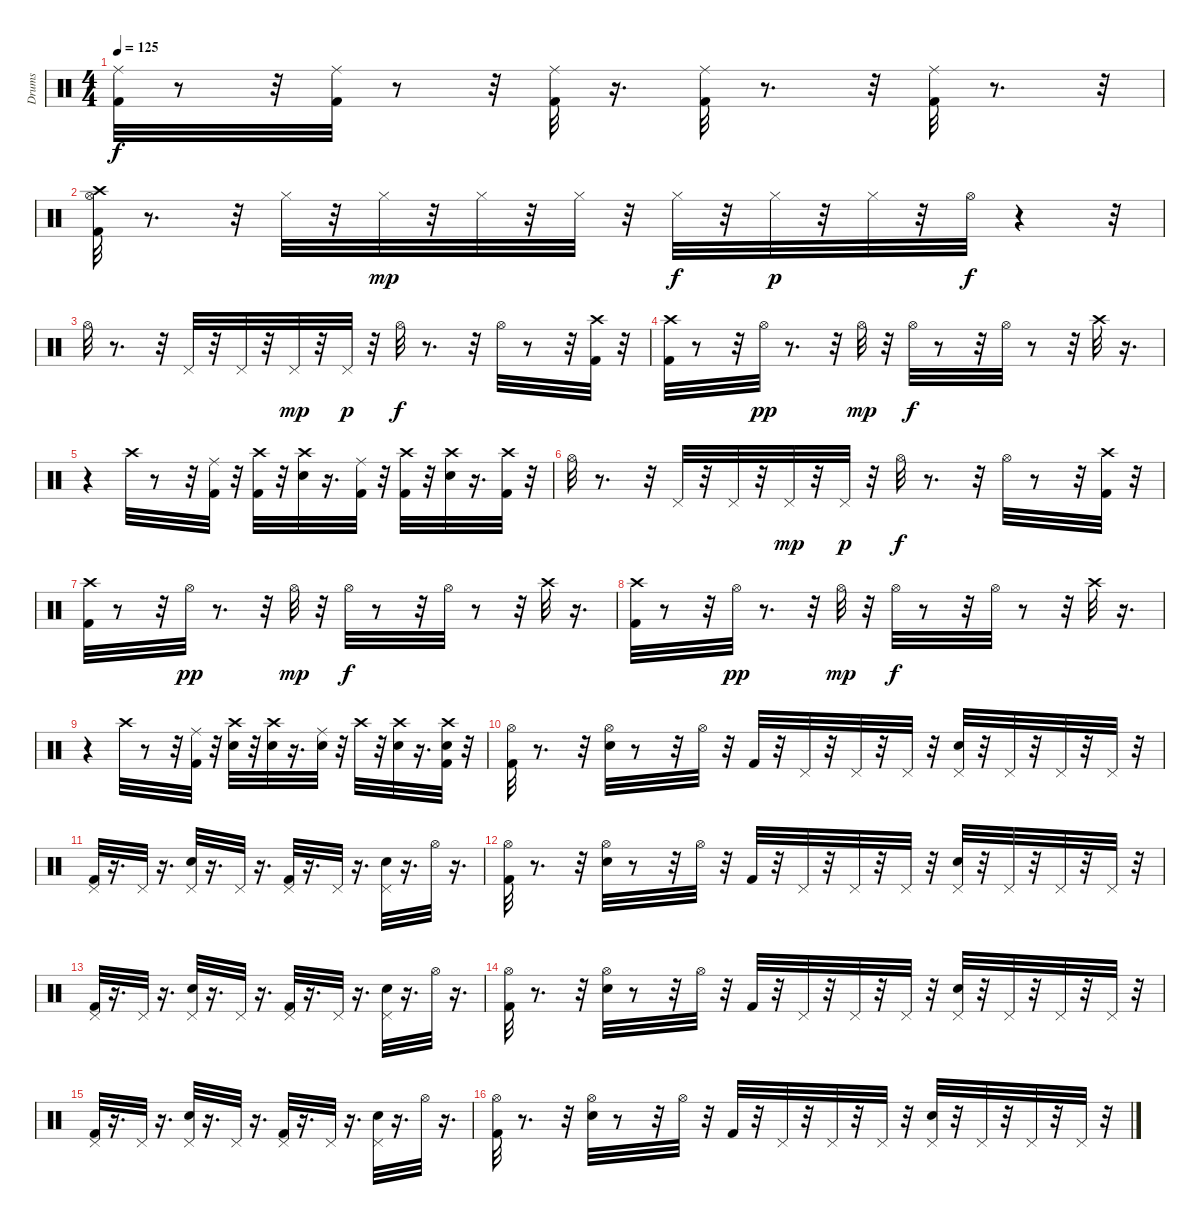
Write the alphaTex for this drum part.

\track ("Drums" "Drums") {instrument percussion}
\staff {score}
\articulation defaults
\ts (4 4)
\tempo 125
\clef neutral
\ks c
("Ride (middle)" "Kick (hit) 2").32{dy f} r.8 r.32 ("Kick (hit) 2" "Ride (middle)").32 r.8 r.32 ("Ride (middle)" "Kick (hit) 2").32 r.16{d} ("Ride (middle)" "Kick (hit) 2").32 r.8{d} r.32 ("Ride (middle)" "Kick (hit) 2").32 r.8{d} r.32 |
("Kick (hit) 2" "Hi-Hat (open)" "Crash high (hit)").32 r.8{d} r.32 "Hi-Hat (closed)".32 r.32 "Hi-Hat (closed)".32{dy mp} r.32 "Hi-Hat (closed)".32 r.32 "Hi-Hat (closed)".32 r.32 "Hi-Hat (closed)".32{dy f} r.32 "Hi-Hat (closed)".32{dy p} r.32 "Hi-Hat (closed)".32 r.32 "Hi-Hat (open)".32{dy f} r.4 r.32 |
"Hi-Hat (open)".32 r.8{d} r.32 "Pedal Hi-Hat (hit)".32 r.32 "Pedal Hi-Hat (hit)".32 r.32 "Pedal Hi-Hat (hit)".32{dy mp} r.32 "Pedal Hi-Hat (hit)".32{dy p} r.32 "Hi-Hat (open)".32{dy f} r.8{d} r.32 "Hi-Hat (open)".32 r.8 r.32 ("Crash high (hit)" "Kick (hit) 2").32 r.32 |
("Crash high (hit)" "Kick (hit) 2").32 r.8 r.32 "Hi-Hat (open)".32{dy pp} r.8{d} r.32 "Hi-Hat (open)".32{dy mp} r.32 "Hi-Hat (open)".32{dy f} r.8 r.32 "Hi-Hat (open)".32 r.8 r.32 "Crash high (hit)".32 r.16{d} |
r.4 "Crash high (hit)".32 r.8 r.32 ("Ride (middle)" "Kick (hit) 2").32 r.32 ("Crash high (hit)" "Kick (hit) 2").32 r.32 ("Crash high (hit)" "Snare (hit) 2").32 r.16{d} ("Ride (middle)" "Kick (hit) 2").32 r.32 ("Crash high (hit)" "Kick (hit) 2").32 r.32 ("Crash high (hit)" "Snare (hit) 2").32 r.16{d} ("Kick (hit) 2" "Crash high (hit)").32 r.32 |
"Hi-Hat (open)".32 r.8{d} r.32 "Pedal Hi-Hat (hit)".32 r.32 "Pedal Hi-Hat (hit)".32 r.32 "Pedal Hi-Hat (hit)".32{dy mp} r.32 "Pedal Hi-Hat (hit)".32{dy p} r.32 "Hi-Hat (open)".32{dy f} r.8{d} r.32 "Hi-Hat (open)".32 r.8 r.32 ("Crash high (hit)" "Kick (hit) 2").32 r.32 |
("Crash high (hit)" "Kick (hit) 2").32 r.8 r.32 "Hi-Hat (open)".32{dy pp} r.8{d} r.32 "Hi-Hat (open)".32{dy mp} r.32 "Hi-Hat (open)".32{dy f} r.8 r.32 "Hi-Hat (open)".32 r.8 r.32 "Crash high (hit)".32 r.16{d} |
("Crash high (hit)" "Kick (hit) 2").32 r.8 r.32 "Hi-Hat (open)".32{dy pp} r.8{d} r.32 "Hi-Hat (open)".32{dy mp} r.32 "Hi-Hat (open)".32{dy f} r.8 r.32 "Hi-Hat (open)".32 r.8 r.32 "Crash high (hit)".32 r.16{d} |
r.4 "Crash high (hit)".32 r.8 r.32 ("Ride (middle)" "Kick (hit) 2").32 r.32 ("Snare (hit) 2" "Crash high (hit)").32 r.32 ("Crash high (hit)" "Snare (hit) 2").32 r.16{d} ("Snare (hit) 2" "Ride (middle)").32 r.32 "Crash high (hit)".32 r.32 ("Crash high (hit)" "Snare (hit) 2").32 r.16{d} ("Snare (hit) 2" "Kick (hit) 2" "Crash high (hit)").32 r.32 |
("Hi-Hat (open)" "Kick (hit) 2").32 r.8{d} r.32 ("Hi-Hat (open)" "Snare (hit) 2").32 r.8 r.32 "Hi-Hat (open)".32 r.32 "Kick (hit) 2".32 r.32 "Pedal Hi-Hat (hit)".32 r.32 "Pedal Hi-Hat (hit)".32 r.32 "Pedal Hi-Hat (hit)".32 r.32 ("Pedal Hi-Hat (hit)" "Snare (hit) 2").32 r.32 "Pedal Hi-Hat (hit)".32 r.32 "Pedal Hi-Hat (hit)".32 r.32 "Pedal Hi-Hat (hit)".32 r.32 |
("Pedal Hi-Hat (hit)" "Kick (hit) 2").32 r.16{d} "Pedal Hi-Hat (hit)".32 r.16{d} ("Pedal Hi-Hat (hit)" "Snare (hit) 2").32 r.16{d} "Pedal Hi-Hat (hit)".32 r.16{d} ("Pedal Hi-Hat (hit)" "Kick (hit) 2").32 r.16{d} "Pedal Hi-Hat (hit)".32 r.16{d} ("Pedal Hi-Hat (hit)" "Snare (hit) 2").32 r.16{d} "Hi-Hat (open)".32 r.16{d} |
("Hi-Hat (open)" "Kick (hit) 2").32 r.8{d} r.32 ("Hi-Hat (open)" "Snare (hit) 2").32 r.8 r.32 "Hi-Hat (open)".32 r.32 "Kick (hit) 2".32 r.32 "Pedal Hi-Hat (hit)".32 r.32 "Pedal Hi-Hat (hit)".32 r.32 "Pedal Hi-Hat (hit)".32 r.32 ("Pedal Hi-Hat (hit)" "Snare (hit) 2").32 r.32 "Pedal Hi-Hat (hit)".32 r.32 "Pedal Hi-Hat (hit)".32 r.32 "Pedal Hi-Hat (hit)".32 r.32 |
("Pedal Hi-Hat (hit)" "Kick (hit) 2").32 r.16{d} "Pedal Hi-Hat (hit)".32 r.16{d} ("Pedal Hi-Hat (hit)" "Snare (hit) 2").32 r.16{d} "Pedal Hi-Hat (hit)".32 r.16{d} ("Pedal Hi-Hat (hit)" "Kick (hit) 2").32 r.16{d} "Pedal Hi-Hat (hit)".32 r.16{d} ("Pedal Hi-Hat (hit)" "Snare (hit) 2").32 r.16{d} "Hi-Hat (open)".32 r.16{d} |
("Hi-Hat (open)" "Kick (hit) 2").32 r.8{d} r.32 ("Hi-Hat (open)" "Snare (hit) 2").32 r.8 r.32 "Hi-Hat (open)".32 r.32 "Kick (hit) 2".32 r.32 "Pedal Hi-Hat (hit)".32 r.32 "Pedal Hi-Hat (hit)".32 r.32 "Pedal Hi-Hat (hit)".32 r.32 ("Pedal Hi-Hat (hit)" "Snare (hit) 2").32 r.32 "Pedal Hi-Hat (hit)".32 r.32 "Pedal Hi-Hat (hit)".32 r.32 "Pedal Hi-Hat (hit)".32 r.32 |
("Pedal Hi-Hat (hit)" "Kick (hit) 2").32 r.16{d} "Pedal Hi-Hat (hit)".32 r.16{d} ("Pedal Hi-Hat (hit)" "Snare (hit) 2").32 r.16{d} "Pedal Hi-Hat (hit)".32 r.16{d} ("Pedal Hi-Hat (hit)" "Kick (hit) 2").32 r.16{d} "Pedal Hi-Hat (hit)".32 r.16{d} ("Pedal Hi-Hat (hit)" "Snare (hit) 2").32 r.16{d} "Hi-Hat (open)".32 r.16{d} |
("Hi-Hat (open)" "Kick (hit) 2").32 r.8{d} r.32 ("Hi-Hat (open)" "Snare (hit) 2").32 r.8 r.32 "Hi-Hat (open)".32 r.32 "Kick (hit) 2".32 r.32 "Pedal Hi-Hat (hit)".32 r.32 "Pedal Hi-Hat (hit)".32 r.32 "Pedal Hi-Hat (hit)".32 r.32 ("Pedal Hi-Hat (hit)" "Snare (hit) 2").32 r.32 "Pedal Hi-Hat (hit)".32 r.32 "Pedal Hi-Hat (hit)".32 r.32 "Pedal Hi-Hat (hit)".32 r.32
